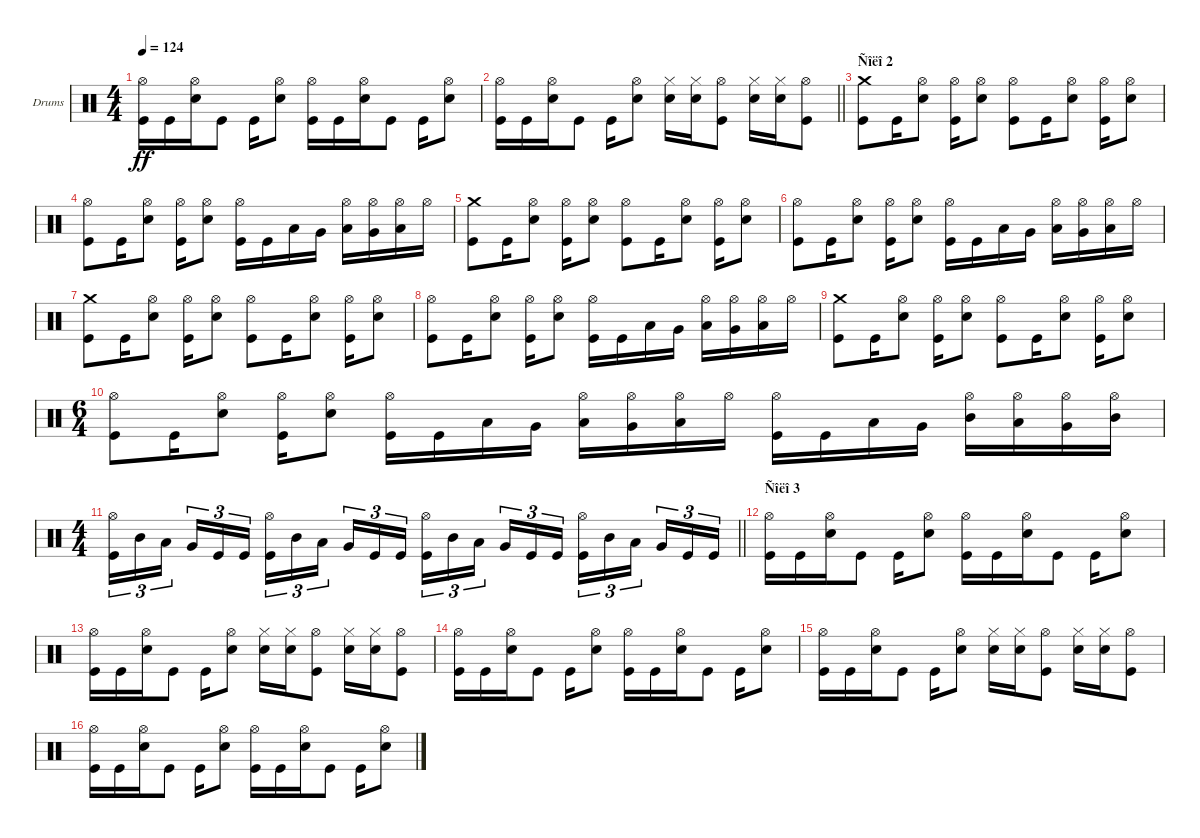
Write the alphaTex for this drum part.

\bracketExtendMode groupsimilarinstruments
\firstSystemTrackNameOrientation horizontal
\otherSystemsTrackNameOrientation horizontal
\track ("Барабаны" "Drums") {instrument percussion}
\staff {score}
\articulation defaults
\ts (4 4)
\tempo 124
\clef neutral
\ks c
("Hi-Hat (open)" "Kick (hit)").16{dy ff} "Kick (hit)".16 ("Hi-Hat (open)" "Snare (hit) 2").16 "Kick (hit)".8 "Kick (hit)".16 ("Hi-Hat (open)" "Snare (hit) 2").8 ("Kick (hit)" "Hi-Hat (open)").16 "Kick (hit)".16 ("Hi-Hat (open)" "Snare (hit) 2").16 "Kick (hit)".8 "Kick (hit)".16 ("Hi-Hat (open)" "Snare (hit) 2").8 |
\barLineRight lightlight
("Hi-Hat (open)" "Kick (hit)").16 "Kick (hit)".16 ("Hi-Hat (open)" "Snare (hit) 2").16 "Kick (hit)".8 "Kick (hit)".16 ("Hi-Hat (open)" "Snare (hit) 2").8 ("Hi-Hat (closed)" "Snare (hit) 2").16 ("Hi-Hat (closed)" "Snare (hit) 2").16 ("Hi-Hat (open)" "Kick (hit)").8 ("Hi-Hat (closed)" "Snare (hit) 2").16 ("Hi-Hat (closed)" "Snare (hit) 2").16 ("Hi-Hat (open)" "Kick (hit)").8 |
\section ("" "Ñîëî 2")
("Crash medium (hit)" "Kick (hit)").8 "Kick (hit)".16 ("Hi-Hat (open)" "Snare (hit) 2").8 ("Kick (hit)" "Hi-Hat (open)").16 ("Hi-Hat (open)" "Snare (hit) 2").8 ("Kick (hit)" "Hi-Hat (open)").8 "Kick (hit)".16 ("Hi-Hat (open)" "Snare (hit) 2").8 ("Kick (hit)" "Hi-Hat (open)").16 ("Hi-Hat (open)" "Snare (hit) 2").8 |
("Kick (hit)" "Hi-Hat (open)").8 "Kick (hit)".16 ("Hi-Hat (open)" "Snare (hit) 2").8 ("Kick (hit)" "Hi-Hat (open)").16 ("Hi-Hat (open)" "Snare (hit) 2").8 ("Hi-Hat (open)" "Kick (hit)").16 "Kick (hit)".16 "Low Tom (hit)".16 "Very Low Tom (hit)".16 ("Hi-Hat (open)" "Low Tom (hit)").16 ("Hi-Hat (open)" "Very Low Tom (hit)").16 ("Hi-Hat (open)" "Low Tom (hit)").16 "Hi-Hat (open)".16 |
("Crash medium (hit)" "Kick (hit)").8 "Kick (hit)".16 ("Hi-Hat (open)" "Snare (hit) 2").8 ("Kick (hit)" "Hi-Hat (open)").16 ("Hi-Hat (open)" "Snare (hit) 2").8 ("Kick (hit)" "Hi-Hat (open)").8 "Kick (hit)".16 ("Hi-Hat (open)" "Snare (hit) 2").8 ("Kick (hit)" "Hi-Hat (open)").16 ("Hi-Hat (open)" "Snare (hit) 2").8 |
("Kick (hit)" "Hi-Hat (open)").8 "Kick (hit)".16 ("Hi-Hat (open)" "Snare (hit) 2").8 ("Kick (hit)" "Hi-Hat (open)").16 ("Hi-Hat (open)" "Snare (hit) 2").8 ("Hi-Hat (open)" "Kick (hit)").16 "Kick (hit)".16 "Low Tom (hit)".16 "Very Low Tom (hit)".16 ("Hi-Hat (open)" "Low Tom (hit)").16 ("Hi-Hat (open)" "Very Low Tom (hit)").16 ("Hi-Hat (open)" "Low Tom (hit)").16 "Hi-Hat (open)".16 |
("Crash medium (hit)" "Kick (hit)").8 "Kick (hit)".16 ("Hi-Hat (open)" "Snare (hit) 2").8 ("Kick (hit)" "Hi-Hat (open)").16 ("Hi-Hat (open)" "Snare (hit) 2").8 ("Kick (hit)" "Hi-Hat (open)").8 "Kick (hit)".16 ("Hi-Hat (open)" "Snare (hit) 2").8 ("Kick (hit)" "Hi-Hat (open)").16 ("Hi-Hat (open)" "Snare (hit) 2").8 |
("Kick (hit)" "Hi-Hat (open)").8 "Kick (hit)".16 ("Hi-Hat (open)" "Snare (hit) 2").8 ("Kick (hit)" "Hi-Hat (open)").16 ("Hi-Hat (open)" "Snare (hit) 2").8 ("Hi-Hat (open)" "Kick (hit)").16 "Kick (hit)".16 "Low Tom (hit)".16 "Very Low Tom (hit)".16 ("Hi-Hat (open)" "Low Tom (hit)").16 ("Hi-Hat (open)" "Very Low Tom (hit)").16 ("Hi-Hat (open)" "Low Tom (hit)").16 "Hi-Hat (open)".16 |
("Crash medium (hit)" "Kick (hit)").8 "Kick (hit)".16 ("Hi-Hat (open)" "Snare (hit) 2").8 ("Kick (hit)" "Hi-Hat (open)").16 ("Hi-Hat (open)" "Snare (hit) 2").8 ("Kick (hit)" "Hi-Hat (open)").8 "Kick (hit)".16 ("Hi-Hat (open)" "Snare (hit) 2").8 ("Kick (hit)" "Hi-Hat (open)").16 ("Hi-Hat (open)" "Snare (hit) 2").8 |
\ts (6 4)
("Kick (hit)" "Hi-Hat (open)").8 "Kick (hit)".16 ("Hi-Hat (open)" "Snare (hit) 2").8 ("Kick (hit)" "Hi-Hat (open)").16 ("Hi-Hat (open)" "Snare (hit) 2").8 ("Hi-Hat (open)" "Kick (hit)").16 "Kick (hit)".16 "Low Tom (hit)".16 "Very Low Tom (hit)".16 ("Hi-Hat (open)" "Low Tom (hit)").16 ("Hi-Hat (open)" "Very Low Tom (hit)").16 ("Hi-Hat (open)" "Low Tom (hit)").16 "Hi-Hat (open)".16 ("Hi-Hat (open)" "Kick (hit)").16 "Kick (hit)".16 "Low Tom (hit)".16 "Very Low Tom (hit)".16 ("Hi-Hat (open)" "Mid Tom (hit)").16 ("Hi-Hat (open)" "Low Tom (hit)").16 ("Hi-Hat (open)" "Very Low Tom (hit)").16 ("Hi-Hat (open)" "Mid Tom (hit)").16 |
\ts (4 4)
\barLineRight lightlight
("Kick (hit)" "Hi-Hat (open)").16{tu (3 2)} "Mid Tom (hit)".16{tu (3 2)} "Low Tom (hit)".16{tu (3 2)} "Very Low Tom (hit)".16{tu (3 2)} "Kick (hit)".16{tu (3 2)} "Kick (hit)".16{tu (3 2)} ("Kick (hit)" "Hi-Hat (open)").16{tu (3 2)} "Mid Tom (hit)".16{tu (3 2)} "Low Tom (hit)".16{tu (3 2)} "Very Low Tom (hit)".16{tu (3 2)} "Kick (hit)".16{tu (3 2)} "Kick (hit)".16{tu (3 2)} ("Kick (hit)" "Hi-Hat (open)").16{tu (3 2)} "Mid Tom (hit)".16{tu (3 2)} "Low Tom (hit)".16{tu (3 2)} "Very Low Tom (hit)".16{tu (3 2)} "Kick (hit)".16{tu (3 2)} "Kick (hit)".16{tu (3 2)} ("Kick (hit)" "Hi-Hat (open)").16{tu (3 2)} "Mid Tom (hit)".16{tu (3 2)} "Low Tom (hit)".16{tu (3 2)} "Very Low Tom (hit)".16{tu (3 2)} "Kick (hit)".16{tu (3 2)} "Kick (hit)".16{tu (3 2)} |
\section ("" "Ñîëî 3")
("Hi-Hat (open)" "Kick (hit)").16 "Kick (hit)".16 ("Hi-Hat (open)" "Snare (hit) 2").16 "Kick (hit)".8 "Kick (hit)".16 ("Hi-Hat (open)" "Snare (hit) 2").8 ("Kick (hit)" "Hi-Hat (open)").16 "Kick (hit)".16 ("Hi-Hat (open)" "Snare (hit) 2").16 "Kick (hit)".8 "Kick (hit)".16 ("Hi-Hat (open)" "Snare (hit) 2").8 |
("Hi-Hat (open)" "Kick (hit)").16 "Kick (hit)".16 ("Hi-Hat (open)" "Snare (hit) 2").16 "Kick (hit)".8 "Kick (hit)".16 ("Hi-Hat (open)" "Snare (hit) 2").8 ("Hi-Hat (closed)" "Snare (hit) 2").16 ("Hi-Hat (closed)" "Snare (hit) 2").16 ("Hi-Hat (open)" "Kick (hit)").8 ("Hi-Hat (closed)" "Snare (hit) 2").16 ("Hi-Hat (closed)" "Snare (hit) 2").16 ("Hi-Hat (open)" "Kick (hit)").8 |
("Hi-Hat (open)" "Kick (hit)").16 "Kick (hit)".16 ("Hi-Hat (open)" "Snare (hit) 2").16 "Kick (hit)".8 "Kick (hit)".16 ("Hi-Hat (open)" "Snare (hit) 2").8 ("Kick (hit)" "Hi-Hat (open)").16 "Kick (hit)".16 ("Hi-Hat (open)" "Snare (hit) 2").16 "Kick (hit)".8 "Kick (hit)".16 ("Hi-Hat (open)" "Snare (hit) 2").8 |
("Hi-Hat (open)" "Kick (hit)").16 "Kick (hit)".16 ("Hi-Hat (open)" "Snare (hit) 2").16 "Kick (hit)".8 "Kick (hit)".16 ("Hi-Hat (open)" "Snare (hit) 2").8 ("Hi-Hat (closed)" "Snare (hit) 2").16 ("Hi-Hat (closed)" "Snare (hit) 2").16 ("Hi-Hat (open)" "Kick (hit)").8 ("Hi-Hat (closed)" "Snare (hit) 2").16 ("Hi-Hat (closed)" "Snare (hit) 2").16 ("Hi-Hat (open)" "Kick (hit)").8 |
("Hi-Hat (open)" "Kick (hit)").16 "Kick (hit)".16 ("Hi-Hat (open)" "Snare (hit) 2").16 "Kick (hit)".8 "Kick (hit)".16 ("Hi-Hat (open)" "Snare (hit) 2").8 ("Kick (hit)" "Hi-Hat (open)").16 "Kick (hit)".16 ("Hi-Hat (open)" "Snare (hit) 2").16 "Kick (hit)".8 "Kick (hit)".16 ("Hi-Hat (open)" "Snare (hit) 2").8
